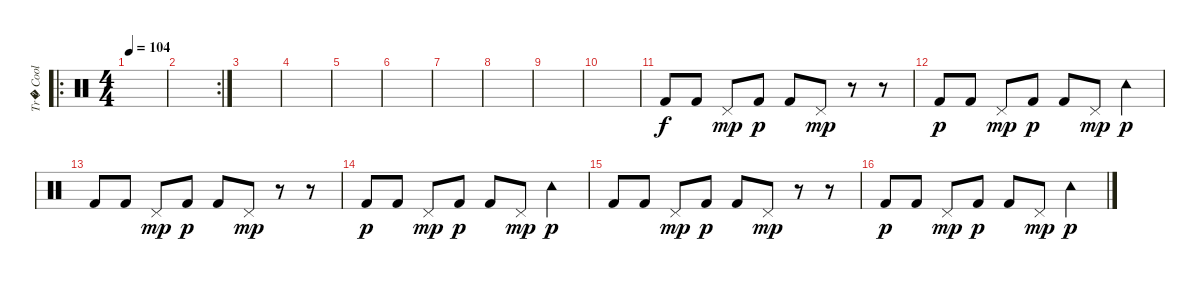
\track ("Tr� Cool" "Tr� Cool") {instrument percussion}
\staff {score}
\articulation defaults
\ro
\ts (4 4)
\tempo 104
\clef neutral
\ks c
|
\rc 2
|
|
|
|
|
|
|
|
|
"Kick (hit) 2".8 "Kick (hit) 2".8 "Pedal Hi-Hat (hit)".8{dy mp} "Kick (hit) 2".8{dy p} "Kick (hit) 2".8 "Pedal Hi-Hat (hit)".8{dy mp} r.8 r.8 |
"Kick (hit) 2".8{dy p} "Kick (hit) 2".8 "Pedal Hi-Hat (hit)".8{dy mp} "Kick (hit) 2".8{dy p} "Kick (hit) 2".8 "Pedal Hi-Hat (hit)".8{dy mp} "Tambourine (hit)".4{dy p} |
"Kick (hit) 2".8 "Kick (hit) 2".8 "Pedal Hi-Hat (hit)".8{dy mp} "Kick (hit) 2".8{dy p} "Kick (hit) 2".8 "Pedal Hi-Hat (hit)".8{dy mp} r.8 r.8 |
"Kick (hit) 2".8{dy p} "Kick (hit) 2".8 "Pedal Hi-Hat (hit)".8{dy mp} "Kick (hit) 2".8{dy p} "Kick (hit) 2".8 "Pedal Hi-Hat (hit)".8{dy mp} "Tambourine (hit)".4{dy p} |
"Kick (hit) 2".8 "Kick (hit) 2".8 "Pedal Hi-Hat (hit)".8{dy mp} "Kick (hit) 2".8{dy p} "Kick (hit) 2".8 "Pedal Hi-Hat (hit)".8{dy mp} r.8 r.8 |
"Kick (hit) 2".8{dy p} "Kick (hit) 2".8 "Pedal Hi-Hat (hit)".8{dy mp} "Kick (hit) 2".8{dy p} "Kick (hit) 2".8 "Pedal Hi-Hat (hit)".8{dy mp} "Tambourine (hit)".4{dy p}
